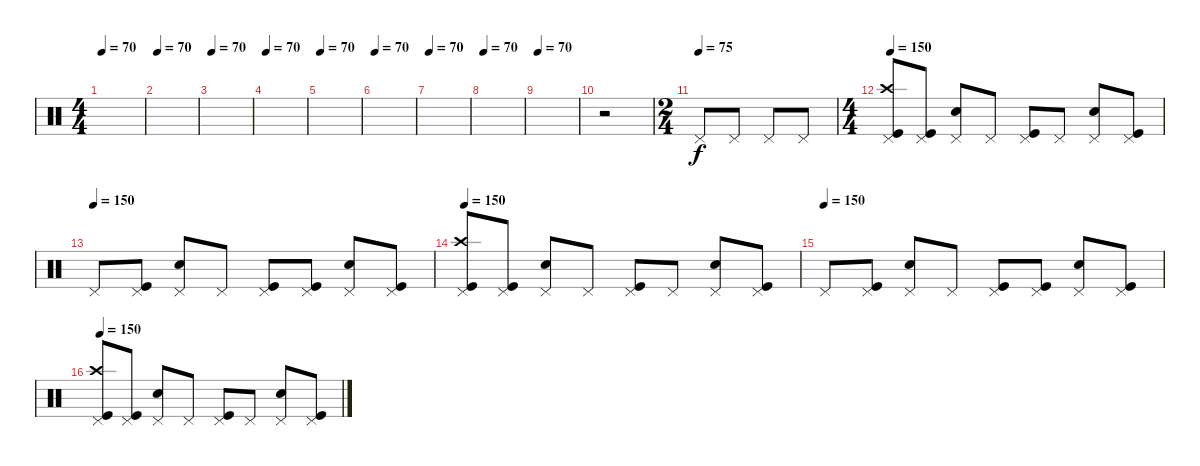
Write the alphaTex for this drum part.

\track "" {instrument percussion}
\staff {score}
\articulation defaults
\ts (4 4)
\tempo 70
\clef neutral
\ks c
|
\tempo 70
|
\tempo 70
|
\tempo 70
|
\tempo 70
|
\tempo 70
|
\tempo 70
|
\tempo 70
|
\tempo 70
|
r.2 |
\ts (2 4)
\tempo (75)
"Pedal Hi-Hat (hit)".8 "Pedal Hi-Hat (hit)".8 "Pedal Hi-Hat (hit)".8 "Pedal Hi-Hat (hit)".8 |
\ts (4 4)
\tempo 150
("Pedal Hi-Hat (hit)" "Crash high (hit)" "Kick (hit)").8 ("Pedal Hi-Hat (hit)" "Kick (hit)").8 ("Pedal Hi-Hat (hit)" "Snare (hit) 2").8 "Pedal Hi-Hat (hit)".8 ("Pedal Hi-Hat (hit)" "Kick (hit)").8 "Pedal Hi-Hat (hit)".8 ("Pedal Hi-Hat (hit)" "Snare (hit) 2").8 ("Pedal Hi-Hat (hit)" "Kick (hit)").8 |
\tempo (150)
"Pedal Hi-Hat (hit)".8 ("Pedal Hi-Hat (hit)" "Kick (hit)").8 ("Pedal Hi-Hat (hit)" "Snare (hit) 2").8 "Pedal Hi-Hat (hit)".8 ("Pedal Hi-Hat (hit)" "Kick (hit)").8 ("Pedal Hi-Hat (hit)" "Kick (hit)").8 ("Pedal Hi-Hat (hit)" "Snare (hit) 2").8 ("Pedal Hi-Hat (hit)" "Kick (hit)").8 |
\tempo 150
("Pedal Hi-Hat (hit)" "Crash high (hit)" "Kick (hit)").8 ("Pedal Hi-Hat (hit)" "Kick (hit)").8 ("Pedal Hi-Hat (hit)" "Snare (hit) 2").8 "Pedal Hi-Hat (hit)".8 ("Pedal Hi-Hat (hit)" "Kick (hit)").8 "Pedal Hi-Hat (hit)".8 ("Pedal Hi-Hat (hit)" "Snare (hit) 2").8 ("Pedal Hi-Hat (hit)" "Kick (hit)").8 |
\tempo (150)
"Pedal Hi-Hat (hit)".8 ("Pedal Hi-Hat (hit)" "Kick (hit)").8 ("Pedal Hi-Hat (hit)" "Snare (hit) 2").8 "Pedal Hi-Hat (hit)".8 ("Pedal Hi-Hat (hit)" "Kick (hit)").8 ("Pedal Hi-Hat (hit)" "Kick (hit)").8 ("Pedal Hi-Hat (hit)" "Snare (hit) 2").8 ("Pedal Hi-Hat (hit)" "Kick (hit)").8 |
\tempo 150
("Pedal Hi-Hat (hit)" "Crash high (hit)" "Kick (hit)").8 ("Pedal Hi-Hat (hit)" "Kick (hit)").8 ("Pedal Hi-Hat (hit)" "Snare (hit) 2").8 "Pedal Hi-Hat (hit)".8 ("Pedal Hi-Hat (hit)" "Kick (hit)").8 "Pedal Hi-Hat (hit)".8 ("Pedal Hi-Hat (hit)" "Snare (hit) 2").8 ("Pedal Hi-Hat (hit)" "Kick (hit)").8
